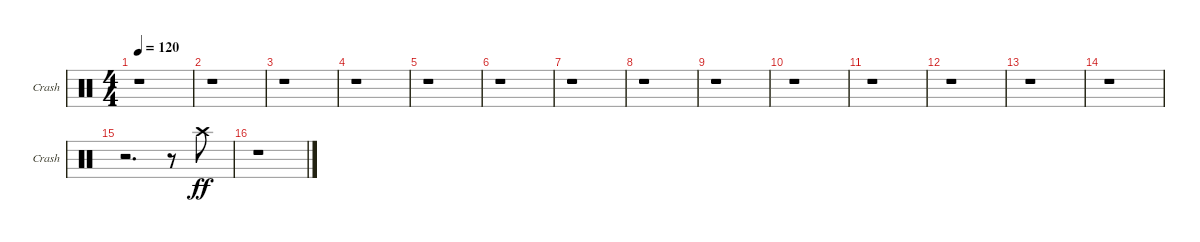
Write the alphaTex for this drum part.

\bracketExtendMode groupsimilarinstruments
\singleTrackTrackNamePolicy allsystems
\multiTrackTrackNamePolicy allsystems
\firstSystemTrackNameOrientation horizontal
\otherSystemsTrackNameOrientation horizontal
\track ("Cymbal" "Crash") {instrument percussion}
\staff {score}
\articulation defaults
\ts (4 4)
\tempo 120
\clef neutral
\scale
0.333333
\ks c
r.1{dy f} |
\scale
0.333333 r.1 |
\scale
0.333333 r.1 |
\scale
0.333333 r.1 |
\scale
0.333333 r.1 |
\scale
0.333333 r.1 |
\scale
0.333333 r.1 |
\scale
0.333333 r.1 |
\scale
0.333333 r.1 |
\scale
0.333333 r.1 |
\scale
0.333333 r.1 |
\scale
0.333333 r.1 |
\scale
0.333333 r.1 |
\scale
0.333333 r.1 |
\scale
0.333333 r.2{d} r.8 "Crash high (hit)".8{dy ff} |
\scale
0.333333 r.1
